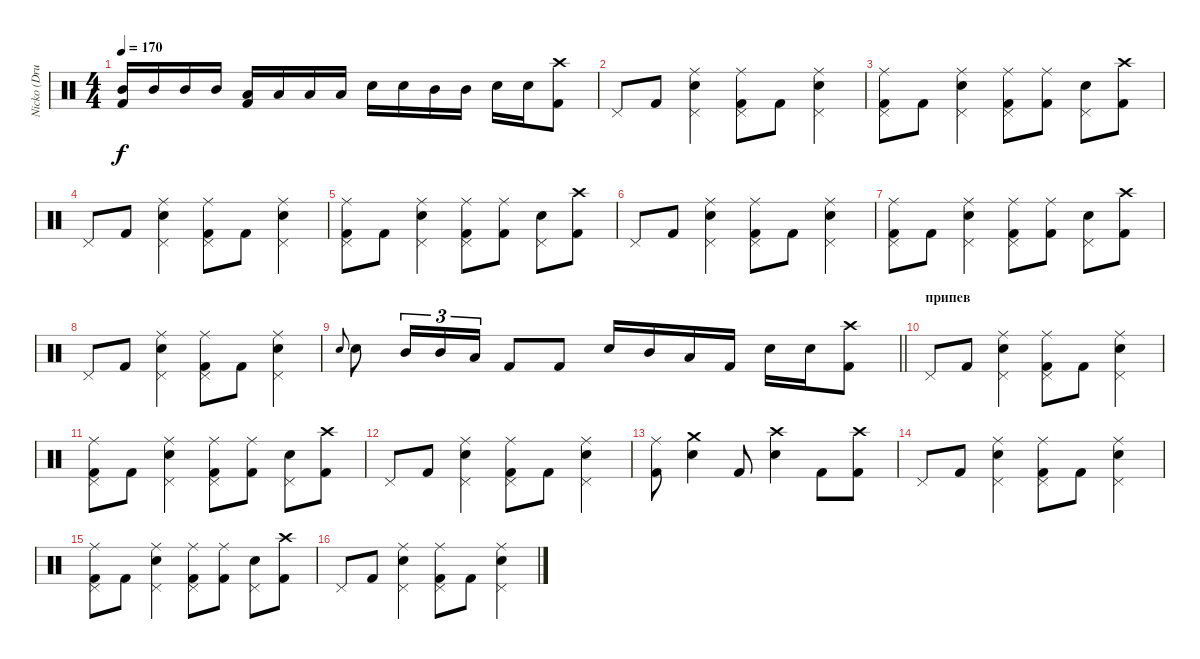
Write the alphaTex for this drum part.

\track ("Nicko (Drums)" "Nicko (Dru") {instrument percussion}
\staff {score}
\articulation defaults
\ts (4 4)
\tempo 170
\clef neutral
\ks c
("Mid Tom (hit)" "Kick (hit) 2").16{dy f} "Mid Tom (hit)".16 "Mid Tom (hit)".16 "Mid Tom (hit)".16 ("Low Tom (hit)" "Kick (hit) 2").16 "Low Tom (hit)".16 "Low Tom (hit)".16 "Low Tom (hit)".16 "Snare (hit) 2".16 "Snare (hit) 2".16 "Mid Tom (hit)".16 "Mid Tom (hit)".16 "Snare (hit) 2".16 "Snare (hit) 2".16 ("Kick (hit) 2" "Crash high (hit)").8 |
"Pedal Hi-Hat (hit)".8 "Kick (hit) 2".8 ("Ride (middle)" "Snare (hit) 2" "Pedal Hi-Hat (hit)").4 ("Ride (middle)" "Pedal Hi-Hat (hit)" "Kick (hit) 2").8 "Kick (hit) 2".8 ("Ride (middle)" "Snare (hit) 2" "Pedal Hi-Hat (hit)").4 |
("Ride (middle)" "Pedal Hi-Hat (hit)" "Kick (hit) 2").8 "Kick (hit) 2".8 ("Ride (middle)" "Snare (hit) 2" "Pedal Hi-Hat (hit)").4 ("Ride (middle)" "Pedal Hi-Hat (hit)" "Kick (hit) 2").8 ("Ride (middle)" "Kick (hit) 2").8 ("Snare (hit) 2" "Pedal Hi-Hat (hit)").8 ("Crash high (hit)" "Kick (hit) 2").8 |
"Pedal Hi-Hat (hit)".8 "Kick (hit) 2".8 ("Ride (middle)" "Snare (hit) 2" "Pedal Hi-Hat (hit)").4 ("Ride (middle)" "Pedal Hi-Hat (hit)" "Kick (hit) 2").8 "Kick (hit) 2".8 ("Ride (middle)" "Snare (hit) 2" "Pedal Hi-Hat (hit)").4 |
("Ride (middle)" "Pedal Hi-Hat (hit)" "Kick (hit) 2").8 "Kick (hit) 2".8 ("Ride (middle)" "Snare (hit) 2" "Pedal Hi-Hat (hit)").4 ("Ride (middle)" "Pedal Hi-Hat (hit)" "Kick (hit) 2").8 ("Ride (middle)" "Kick (hit) 2").8 ("Snare (hit) 2" "Pedal Hi-Hat (hit)").8 ("Crash high (hit)" "Kick (hit) 2").8 |
"Pedal Hi-Hat (hit)".8 "Kick (hit) 2".8 ("Ride (middle)" "Snare (hit) 2" "Pedal Hi-Hat (hit)").4 ("Ride (middle)" "Pedal Hi-Hat (hit)" "Kick (hit) 2").8 "Kick (hit) 2".8 ("Ride (middle)" "Snare (hit) 2" "Pedal Hi-Hat (hit)").4 |
("Ride (middle)" "Pedal Hi-Hat (hit)" "Kick (hit) 2").8 "Kick (hit) 2".8 ("Ride (middle)" "Snare (hit) 2" "Pedal Hi-Hat (hit)").4 ("Ride (middle)" "Pedal Hi-Hat (hit)" "Kick (hit) 2").8 ("Ride (middle)" "Kick (hit) 2").8 ("Snare (hit) 2" "Pedal Hi-Hat (hit)").8 ("Crash high (hit)" "Kick (hit) 2").8 |
"Pedal Hi-Hat (hit)".8 "Kick (hit) 2".8 ("Ride (middle)" "Snare (hit) 2" "Pedal Hi-Hat (hit)").4 ("Ride (middle)" "Pedal Hi-Hat (hit)" "Kick (hit) 2").8 "Kick (hit) 2".8 ("Ride (middle)" "Snare (hit) 2" "Pedal Hi-Hat (hit)").4 |
\barLineRight lightlight "Snare (hit) 2".8{gr onbeat} "Snare (hit) 2".8 "Mid Tom (hit)".16{tu (3 2)} "Mid Tom (hit)".16{tu (3 2)} "Low Tom (hit)".16{tu (3 2)} "Kick (hit) 2".8 "Kick (hit) 2".8 "Snare (hit) 2".16 "Mid Tom (hit)".16 "Low Tom (hit)".16 "Kick (hit) 2".16 "Snare (hit) 2".16 "Snare (hit) 2".16
("Crash high (hit)" "Kick (hit) 2").8 |
\section ("" "припев ")
"Pedal Hi-Hat (hit)".8 "Kick (hit) 2".8 ("Ride (middle)" "Snare (hit) 2" "Pedal Hi-Hat (hit)").4 ("Ride (middle)" "Pedal Hi-Hat (hit)" "Kick (hit) 2").8 "Kick (hit) 2".8 ("Ride (middle)" "Snare (hit) 2" "Pedal Hi-Hat (hit)").4 |
("Ride (middle)" "Pedal Hi-Hat (hit)" "Kick (hit) 2").8 "Kick (hit) 2".8 ("Ride (middle)" "Snare (hit) 2" "Pedal Hi-Hat (hit)").4 ("Ride (middle)" "Pedal Hi-Hat (hit)" "Kick (hit) 2").8 ("Ride (middle)" "Kick (hit) 2").8 ("Snare (hit) 2" "Pedal Hi-Hat (hit)").8 ("Crash high (hit)" "Kick (hit) 2").8 |
"Pedal Hi-Hat (hit)".8 "Kick (hit) 2".8 ("Ride (middle)" "Snare (hit) 2" "Pedal Hi-Hat (hit)").4 ("Ride (middle)" "Pedal Hi-Hat (hit)" "Kick (hit) 2").8 "Kick (hit) 2".8 ("Ride (middle)" "Snare (hit) 2" "Pedal Hi-Hat (hit)").4 |
("Ride (middle)" "Kick (hit) 2").8 ("Crash medium (hit)" "Snare (hit) 2").4 "Kick (hit) 2".8 ("Crash high (hit)" "Snare (hit) 2").4 "Kick (hit) 2".8 ("Crash high (hit)" "Kick (hit) 2").8 |
"Pedal Hi-Hat (hit)".8 "Kick (hit) 2".8 ("Ride (middle)" "Snare (hit) 2" "Pedal Hi-Hat (hit)").4 ("Ride (middle)" "Pedal Hi-Hat (hit)" "Kick (hit) 2").8 "Kick (hit) 2".8 ("Ride (middle)" "Snare (hit) 2" "Pedal Hi-Hat (hit)").4 |
("Ride (middle)" "Pedal Hi-Hat (hit)" "Kick (hit) 2").8 "Kick (hit) 2".8 ("Ride (middle)" "Snare (hit) 2" "Pedal Hi-Hat (hit)").4 ("Ride (middle)" "Pedal Hi-Hat (hit)" "Kick (hit) 2").8 ("Ride (middle)" "Kick (hit) 2").8 ("Snare (hit) 2" "Pedal Hi-Hat (hit)").8 ("Crash high (hit)" "Kick (hit) 2").8 |
"Pedal Hi-Hat (hit)".8 "Kick (hit) 2".8 ("Ride (middle)" "Snare (hit) 2" "Pedal Hi-Hat (hit)").4 ("Ride (middle)" "Pedal Hi-Hat (hit)" "Kick (hit) 2").8 "Kick (hit) 2".8 ("Ride (middle)" "Snare (hit) 2" "Pedal Hi-Hat (hit)").4
